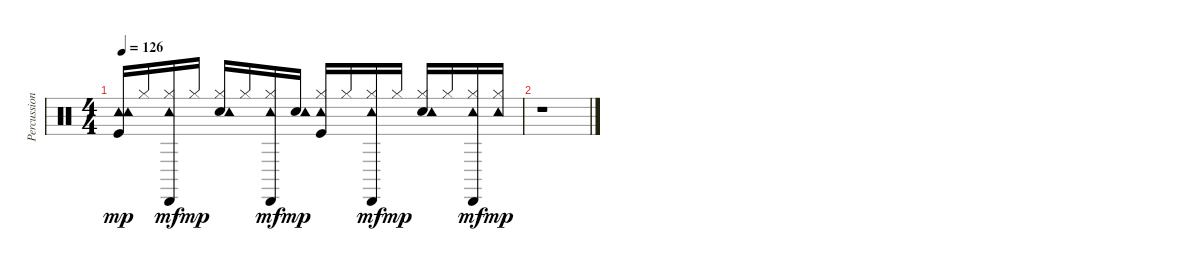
\track ("Percussion" "Percussion") {instrument percussion}
\staff {score}
\articulation defaults
\ts (4 4)
\tempo 126
\clef neutral
\ks c
("Kick (hit)" "Tambourine (hit)" "Tambourine (hit)").16{dy mp} "Hi-Hat (closed)".16 ("Hi-Hat (closed)" "Tambourine (hit)" "Cabasa (hit)").16{dy mf} "Hi-Hat (closed)".16{dy mp} ("Snare (hit) 2" "Hi-Hat (closed)" "Tambourine (hit)").16 "Hi-Hat (closed)".16 ("Hi-Hat (closed)" "Tambourine (hit)" "Cabasa (hit)").16{dy mf} ("Snare (hit) 2" "Tambourine (hit)").16{dy mp} ("Kick (hit)" "Hi-Hat (closed)" "Tambourine (hit)").16 "Hi-Hat (closed)".16 ("Hi-Hat (closed)" "Tambourine (hit)" "Cabasa (hit)").16{dy mf} "Hi-Hat (closed)".16{dy mp} ("Snare (hit) 2" "Hi-Hat (closed)" "Tambourine (hit)").16 "Hi-Hat (closed)".16 ("Hi-Hat (closed)" "Tambourine (hit)" "Cabasa (hit)").16{dy mf} ("Hi-Hat (closed)" "Tambourine (hit)").16{dy mp} |
r.1
